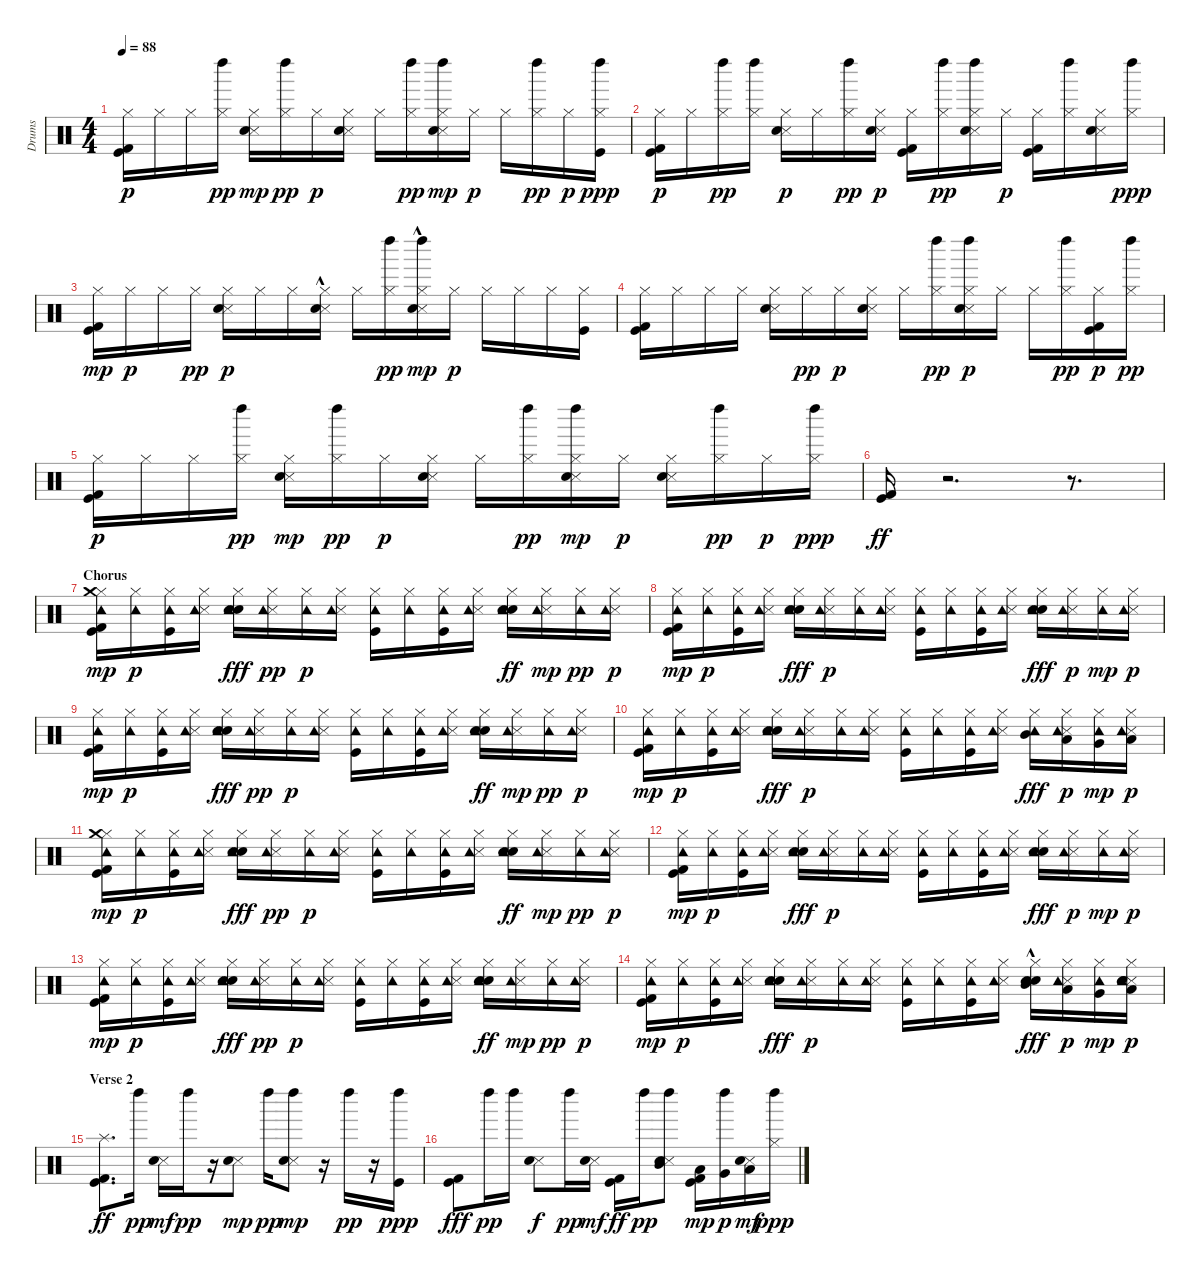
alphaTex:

\track ("Drums" "Drums") {instrument percussion}
\staff {score}
\articulation defaults
\ts (4 4)
\tempo 88
\clef neutral
\ks c
("Kick (hit)" "Kick (hit) 2" "Hi-Hat (closed)").16{dy p} "Hi-Hat (closed)".16 "Hi-Hat (closed)".16 ("Hi-Hat (closed)" "Left Maraca (hit)").16{dy pp} ("Snare (side stick) 3" "Snare (hit) 2" "Hi-Hat (closed)").16{dy mp} ("Hi-Hat (closed)" "Left Maraca (hit)").16{dy pp} "Hi-Hat (closed)".16{dy p} ("Snare (side stick) 3" "Snare (hit) 2" "Hi-Hat (closed)").16 "Hi-Hat (closed)".16 ("Hi-Hat (closed)" "Left Maraca (hit)").16{dy pp} ("Snare (side stick) 3" "Snare (hit) 2" "Hi-Hat (closed)" "Left Maraca (hit)").16{dy mp} "Hi-Hat (closed)".16{dy p} "Hi-Hat (closed)".16 ("Hi-Hat (closed)" "Left Maraca (hit)").16{dy pp} "Hi-Hat (closed)".16{dy p} ("Kick (hit)" "Hi-Hat (closed)" "Left Maraca (hit)").16{dy ppp} |
("Kick (hit)" "Kick (hit) 2" "Hi-Hat (closed)").16{dy p} "Hi-Hat (closed)".16 ("Hi-Hat (closed)" "Left Maraca (hit)").16{dy pp} ("Hi-Hat (closed)" "Left Maraca (hit)").16 ("Snare (side stick) 3" "Snare (hit) 2" "Hi-Hat (closed)").16{dy p} "Hi-Hat (closed)".16 ("Hi-Hat (closed)" "Left Maraca (hit)").16{dy pp} ("Snare (side stick) 3" "Snare (hit) 2" "Hi-Hat (closed)").16{dy p} ("Kick (hit) 2" "Kick (hit)" "Hi-Hat (closed)").16 ("Hi-Hat (closed)" "Left Maraca (hit)").16{dy pp} ("Snare (side stick) 3" "Snare (hit) 2" "Hi-Hat (closed)" "Left Maraca (hit)").16 "Hi-Hat (closed)".16{dy p} ("Kick (hit)" "Kick (hit) 2" "Hi-Hat (closed)").16 ("Hi-Hat (closed)" "Left Maraca (hit)").16 ("Snare (side stick) 3" "Snare (hit) 2" "Hi-Hat (closed)").16 ("Hi-Hat (closed)" "Left Maraca (hit)").16{dy ppp} |
("Kick (hit) 2" "Kick (hit)" "Hi-Hat (closed)").16{dy mp} "Hi-Hat (closed)".16{dy p} "Hi-Hat (closed)".16 "Hi-Hat (closed)".16{dy pp} ("Snare (side stick) 3" "Snare (hit) 2" "Hi-Hat (closed)").16{dy p} "Hi-Hat (closed)".16 "Hi-Hat (closed)".16 ("Snare (side stick) 3"{hac} "Snare (hit) 2"{hac} "Hi-Hat (closed)").16 "Hi-Hat (closed)".16 ("Hi-Hat (closed)" "Left Maraca (hit)").16{dy pp} ("Snare (side stick) 3"{hac} "Snare (hit) 2" "Hi-Hat (closed)" "Left Maraca (hit)").16{dy mp} "Hi-Hat (closed)".16{dy p} "Hi-Hat (closed)".16 "Hi-Hat (closed)".16 "Hi-Hat (closed)".16 ("Kick (hit)" "Hi-Hat (closed)").16 |
("Kick (hit)" "Kick (hit) 2" "Hi-Hat (closed)").16 "Hi-Hat (closed)".16 "Hi-Hat (closed)".16 "Hi-Hat (closed)".16 ("Snare (side stick) 3" "Snare (hit) 2" "Hi-Hat (closed)").16 "Hi-Hat (closed)".16{dy pp} "Hi-Hat (closed)".16{dy p} ("Snare (side stick) 3" "Snare (hit) 2" "Hi-Hat (closed)").16 "Hi-Hat (closed)".16 ("Hi-Hat (closed)" "Left Maraca (hit)").16{dy pp} ("Snare (side stick) 3" "Snare (hit) 2" "Hi-Hat (closed)" "Left Maraca (hit)").16{dy p} "Hi-Hat (closed)".16 "Hi-Hat (closed)".16 ("Hi-Hat (closed)" "Left Maraca (hit)").16{dy pp} ("Kick (hit)" "Kick (hit) 2" "Hi-Hat (closed)").16{dy p} ("Hi-Hat (closed)" "Left Maraca (hit)").16{dy pp} |
("Kick (hit)" "Kick (hit) 2" "Hi-Hat (closed)").16{dy p} "Hi-Hat (closed)".16 "Hi-Hat (closed)".16 ("Hi-Hat (closed)" "Left Maraca (hit)").16{dy pp} ("Snare (side stick) 3" "Snare (hit) 2" "Hi-Hat (closed)").16{dy mp} ("Hi-Hat (closed)" "Left Maraca (hit)").16{dy pp} "Hi-Hat (closed)".16{dy p} ("Snare (side stick) 3" "Snare (hit) 2" "Hi-Hat (closed)").16 "Hi-Hat (closed)".16 ("Hi-Hat (closed)" "Left Maraca (hit)").16{dy pp} ("Snare (side stick) 3" "Snare (hit) 2" "Hi-Hat (closed)" "Left Maraca (hit)").16{dy mp} "Hi-Hat (closed)".16{dy p} ("Snare (side stick) 3" "Snare (hit) 2" "Hi-Hat (closed)").16 ("Hi-Hat (closed)" "Left Maraca (hit)").16{dy pp} "Hi-Hat (closed)".16{dy p} ("Hi-Hat (closed)" "Left Maraca (hit)").16{dy ppp} |
("Kick (hit) 2" "Kick (hit)").16{dy ff} r.2{d} r.8{d} |
\section ("" "Chorus")
("Kick (hit)" "Kick (hit) 2" "Hi-Hat (closed)" "Crash medium (hit)" "Tambourine (hit)").16{dy mp} ("Hi-Hat (closed)" "Tambourine (hit)").16{dy p} ("Kick (hit)" "Hi-Hat (closed)" "Tambourine (hit)").16 ("Snare (side stick) 3" "Hi-Hat (closed)" "Tambourine (hit)").16 ("Electric Snare (hit)" "Snare (hit) 2" "Hi-Hat (closed)" "Tambourine (hit)").16{dy fff} ("Snare (side stick) 3" "Hi-Hat (closed)" "Tambourine (hit)").16{dy pp} ("Hi-Hat (closed)" "Tambourine (hit)").16{dy p} ("Snare (side stick) 3" "Hi-Hat (closed)" "Tambourine (hit)").16 ("Kick (hit)" "Hi-Hat (closed)" "Tambourine (hit)").16 ("Hi-Hat (closed)" "Tambourine (hit)").16 ("Kick (hit)" "Hi-Hat (closed)" "Tambourine (hit)").16 ("Snare (side stick) 3" "Hi-Hat (closed)" "Tambourine (hit)").16 ("Snare (hit) 2" "Electric Snare (hit)" "Hi-Hat (closed)" "Tambourine (hit)").16{dy ff} ("Snare (side stick) 3" "Hi-Hat (closed)" "Tambourine (hit)").16{dy mp} ("Hi-Hat (closed)" "Tambourine (hit)").16{dy pp} ("Snare (side stick) 3" "Hi-Hat (closed)" "Tambourine (hit)").16{dy p} |
("Kick (hit)" "Kick (hit) 2" "Hi-Hat (closed)" "Tambourine (hit)").16{dy mp} ("Hi-Hat (closed)" "Tambourine (hit)").16{dy p} ("Kick (hit)" "Hi-Hat (closed)" "Tambourine (hit)").16 ("Snare (side stick) 3" "Hi-Hat (closed)" "Tambourine (hit)").16 ("Snare (hit) 2" "Electric Snare (hit)" "Hi-Hat (closed)" "Tambourine (hit)").16{dy fff} ("Snare (side stick) 3" "Hi-Hat (closed)" "Tambourine (hit)").16{dy p} ("Hi-Hat (closed)" "Tambourine (hit)").16 ("Snare (side stick) 3" "Hi-Hat (closed)" "Tambourine (hit)").16 ("Kick (hit)" "Hi-Hat (closed)" "Tambourine (hit)").16 ("Hi-Hat (closed)" "Tambourine (hit)").16 ("Kick (hit)" "Hi-Hat (closed)" "Tambourine (hit)").16 ("Snare (side stick) 3" "Hi-Hat (closed)" "Tambourine (hit)").16 ("Snare (hit) 2" "Electric Snare (hit)" "Hi-Hat (closed)" "Tambourine (hit)").16{dy fff} ("Snare (side stick) 3" "Hi-Hat (closed)" "Tambourine (hit)").16{dy p} ("Hi-Hat (closed)" "Tambourine (hit)").16{dy mp} ("Snare (side stick) 3" "Hi-Hat (closed)" "Tambourine (hit)").16{dy p} |
("Kick (hit)" "Kick (hit) 2" "Hi-Hat (closed)" "Tambourine (hit)").16{dy mp} ("Hi-Hat (closed)" "Tambourine (hit)").16{dy p} ("Kick (hit)" "Hi-Hat (closed)" "Tambourine (hit)").16 ("Snare (side stick) 3" "Hi-Hat (closed)" "Tambourine (hit)").16 ("Electric Snare (hit)" "Snare (hit) 2" "Hi-Hat (closed)" "Tambourine (hit)").16{dy fff} ("Snare (side stick) 3" "Hi-Hat (closed)" "Tambourine (hit)").16{dy pp} ("Hi-Hat (closed)" "Tambourine (hit)").16{dy p} ("Snare (side stick) 3" "Hi-Hat (closed)" "Tambourine (hit)").16 ("Kick (hit)" "Hi-Hat (closed)" "Tambourine (hit)").16 ("Hi-Hat (closed)" "Tambourine (hit)").16 ("Kick (hit)" "Hi-Hat (closed)" "Tambourine (hit)").16 ("Snare (side stick) 3" "Hi-Hat (closed)" "Tambourine (hit)").16 ("Snare (hit) 2" "Electric Snare (hit)" "Hi-Hat (closed)" "Tambourine (hit)").16{dy ff} ("Snare (side stick) 3" "Hi-Hat (closed)" "Tambourine (hit)").16{dy mp} ("Hi-Hat (closed)" "Tambourine (hit)").16{dy pp} ("Snare (side stick) 3" "Hi-Hat (closed)" "Tambourine (hit)").16{dy p} |
("Kick (hit)" "Kick (hit) 2" "Hi-Hat (closed)" "Tambourine (hit)").16{dy mp} ("Hi-Hat (closed)" "Tambourine (hit)").16{dy p} ("Kick (hit)" "Hi-Hat (closed)" "Tambourine (hit)").16 ("Snare (side stick) 3" "Hi-Hat (closed)" "Tambourine (hit)").16 ("Snare (hit) 2" "Electric Snare (hit)" "Hi-Hat (closed)" "Tambourine (hit)").16{dy fff} ("Snare (side stick) 3" "Hi-Hat (closed)" "Tambourine (hit)").16{dy p} ("Hi-Hat (closed)" "Tambourine (hit)").16 ("Snare (side stick) 3" "Hi-Hat (closed)" "Tambourine (hit)").16 ("Kick (hit)" "Hi-Hat (closed)" "Tambourine (hit)").16 ("Hi-Hat (closed)" "Tambourine (hit)").16 ("Kick (hit)" "Hi-Hat (closed)" "Tambourine (hit)").16 ("Snare (side stick) 3" "Hi-Hat (closed)" "Tambourine (hit)").16 ("Hi-Hat (closed)" "Mid Tom (hit)" "Tambourine (hit)").16{dy fff} ("Snare (side stick) 3" "Hi-Hat (closed)" "Low Tom (hit)" "Tambourine (hit)").16{dy p} ("Hi-Hat (closed)" "Very Low Tom (hit)" "Tambourine (hit)").16{dy mp} ("Snare (side stick) 3" "Hi-Hat (closed)" "Low Floor Tom (hit)" "Tambourine (hit)").16{dy p} |
("Kick (hit)" "Kick (hit) 2" "Hi-Hat (closed)" "Crash medium (hit)" "Tambourine (hit)").16{dy mp} ("Hi-Hat (closed)" "Tambourine (hit)").16{dy p} ("Kick (hit)" "Hi-Hat (closed)" "Tambourine (hit)").16 ("Snare (side stick) 3" "Hi-Hat (closed)" "Tambourine (hit)").16 ("Electric Snare (hit)" "Snare (hit) 2" "Hi-Hat (closed)" "Tambourine (hit)").16{dy fff} ("Snare (side stick) 3" "Hi-Hat (closed)" "Tambourine (hit)").16{dy pp} ("Hi-Hat (closed)" "Tambourine (hit)").16{dy p} ("Snare (side stick) 3" "Hi-Hat (closed)" "Tambourine (hit)").16 ("Kick (hit)" "Hi-Hat (closed)" "Tambourine (hit)").16 ("Hi-Hat (closed)" "Tambourine (hit)").16 ("Kick (hit)" "Hi-Hat (closed)" "Tambourine (hit)").16 ("Snare (side stick) 3" "Hi-Hat (closed)" "Tambourine (hit)").16 ("Snare (hit) 2" "Electric Snare (hit)" "Hi-Hat (closed)" "Tambourine (hit)").16{dy ff} ("Snare (side stick) 3" "Hi-Hat (closed)" "Tambourine (hit)").16{dy mp} ("Hi-Hat (closed)" "Tambourine (hit)").16{dy pp} ("Snare (side stick) 3" "Hi-Hat (closed)" "Tambourine (hit)").16{dy p} |
("Kick (hit)" "Kick (hit) 2" "Hi-Hat (closed)" "Tambourine (hit)").16{dy mp} ("Hi-Hat (closed)" "Tambourine (hit)").16{dy p} ("Kick (hit)" "Hi-Hat (closed)" "Tambourine (hit)").16 ("Snare (side stick) 3" "Hi-Hat (closed)" "Tambourine (hit)").16 ("Snare (hit) 2" "Electric Snare (hit)" "Hi-Hat (closed)" "Tambourine (hit)").16{dy fff} ("Snare (side stick) 3" "Hi-Hat (closed)" "Tambourine (hit)").16{dy p} ("Hi-Hat (closed)" "Tambourine (hit)").16 ("Snare (side stick) 3" "Hi-Hat (closed)" "Tambourine (hit)").16 ("Kick (hit)" "Hi-Hat (closed)" "Tambourine (hit)").16 ("Hi-Hat (closed)" "Tambourine (hit)").16 ("Kick (hit)" "Hi-Hat (closed)" "Tambourine (hit)").16 ("Snare (side stick) 3" "Hi-Hat (closed)" "Tambourine (hit)").16 ("Snare (hit) 2" "Electric Snare (hit)" "Hi-Hat (closed)" "Tambourine (hit)").16{dy fff} ("Snare (side stick) 3" "Hi-Hat (closed)" "Tambourine (hit)").16{dy p} ("Hi-Hat (closed)" "Tambourine (hit)").16{dy mp} ("Snare (side stick) 3" "Hi-Hat (closed)" "Tambourine (hit)").16{dy p} |
("Kick (hit)" "Kick (hit) 2" "Hi-Hat (closed)" "Tambourine (hit)").16{dy mp} ("Hi-Hat (closed)" "Tambourine (hit)").16{dy p} ("Kick (hit)" "Hi-Hat (closed)" "Tambourine (hit)").16 ("Snare (side stick) 3" "Hi-Hat (closed)" "Tambourine (hit)").16 ("Electric Snare (hit)" "Snare (hit) 2" "Hi-Hat (closed)" "Tambourine (hit)").16{dy fff} ("Snare (side stick) 3" "Hi-Hat (closed)" "Tambourine (hit)").16{dy pp} ("Hi-Hat (closed)" "Tambourine (hit)").16{dy p} ("Snare (side stick) 3" "Hi-Hat (closed)" "Tambourine (hit)").16 ("Kick (hit)" "Hi-Hat (closed)" "Tambourine (hit)").16 ("Hi-Hat (closed)" "Tambourine (hit)").16 ("Kick (hit)" "Hi-Hat (closed)" "Tambourine (hit)").16 ("Snare (side stick) 3" "Hi-Hat (closed)" "Tambourine (hit)").16 ("Snare (hit) 2" "Electric Snare (hit)" "Hi-Hat (closed)" "Tambourine (hit)").16{dy ff} ("Snare (side stick) 3" "Hi-Hat (closed)" "Tambourine (hit)").16{dy mp} ("Hi-Hat (closed)" "Tambourine (hit)").16{dy pp} ("Snare (side stick) 3" "Hi-Hat (closed)" "Tambourine (hit)").16{dy p} |
("Kick (hit)" "Kick (hit) 2" "Hi-Hat (closed)" "Tambourine (hit)").16{dy mp} ("Hi-Hat (closed)" "Tambourine (hit)").16{dy p} ("Kick (hit)" "Hi-Hat (closed)" "Tambourine (hit)").16 ("Snare (side stick) 3" "Hi-Hat (closed)" "Tambourine (hit)").16 ("Snare (hit) 2" "Electric Snare (hit)" "Hi-Hat (closed)" "Tambourine (hit)").16{dy fff} ("Snare (side stick) 3" "Hi-Hat (closed)" "Tambourine (hit)").16{dy p} ("Hi-Hat (closed)" "Tambourine (hit)").16 ("Snare (side stick) 3" "Hi-Hat (closed)" "Tambourine (hit)").16 ("Kick (hit)" "Hi-Hat (closed)" "Tambourine (hit)").16 ("Hi-Hat (closed)" "Tambourine (hit)").16 ("Kick (hit)" "Hi-Hat (closed)" "Tambourine (hit)").16 ("Snare (side stick) 3" "Hi-Hat (closed)" "Tambourine (hit)").16 ("Electric Snare (hit)" "Snare (hit) 2"{hac} "Hi-Hat (closed)" "Mid Tom (hit)" "Tambourine (hit)").16{dy fff} ("Snare (side stick) 3" "Hi-Hat (closed)" "Low Tom (hit)" "Tambourine (hit)").16{dy p} ("Hi-Hat (closed)" "Very Low Tom (hit)" "Tambourine (hit)").16{dy mp} ("Snare (side stick) 3" "Electric Snare (hit)" "Snare (hit) 2" "Hi-Hat (closed)" "Low Floor Tom (hit)" "Tambourine (hit)").16{dy p} |
\section ("" "Verse 2")
("Kick (hit)" "Kick (hit) 2" "Splash (hit)").8{d dy ff} "Left Maraca (hit)".16{dy pp} ("Snare (side stick) 3" "Snare (hit) 2").16{dy mf} "Left Maraca (hit)".16{dy pp} r.16 ("Snare (side stick) 3" "Snare (hit) 2").8{dy mp} "Left Maraca (hit)".16{dy pp} ("Snare (side stick) 3" "Snare (hit) 2" "Left Maraca (hit)").8{dy mp} r.16 "Left Maraca (hit)".16{dy pp} r.16 ("Kick (hit)" "Left Maraca (hit)").16{dy ppp} |
("Kick (hit)" "Kick (hit) 2").8{dy fff} "Left Maraca (hit)".16{dy pp} "Left Maraca (hit)".16 ("Snare (side stick) 3" "Snare (hit) 2").8{dy f} "Left Maraca (hit)".16{dy pp} ("Snare (side stick) 3" "Snare (hit) 2").16{dy mf} ("Kick (hit) 2" "Kick (hit)").16{dy ff} "Left Maraca (hit)".16{dy pp} ("Snare (side stick) 3" "Snare (hit) 2" "Mid Tom (hit)" "Left Maraca (hit)").8 ("Kick (hit)" "Kick (hit) 2" "Low Tom (hit)").16{dy mp} ("Very Low Tom (hit)" "Left Maraca (hit)").16{dy p} ("Snare (side stick) 3" "Snare (hit) 2" "Low Floor Tom (hit)").16{dy mf} ("Hi-Hat (closed)" "Left Maraca (hit)").16{dy ppp}
